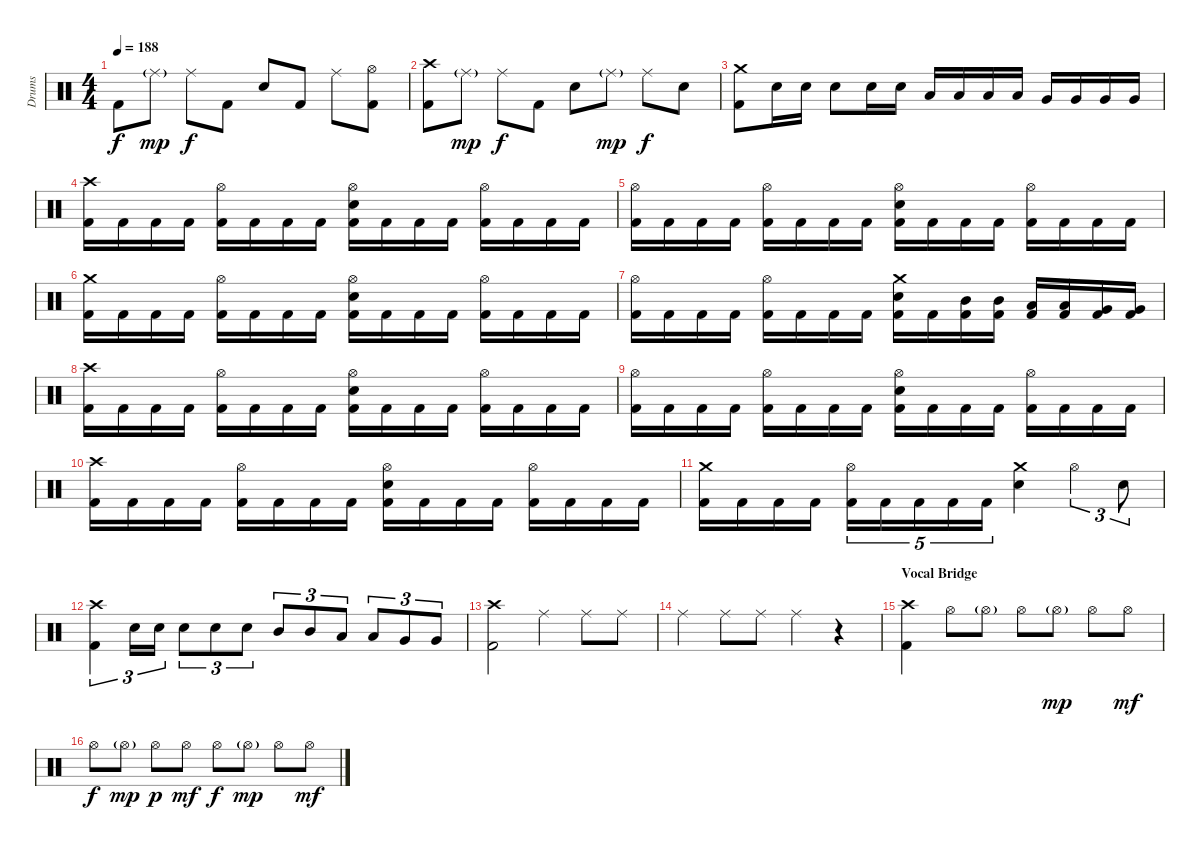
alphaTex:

\track ("Drums" "Drums") {instrument percussion}
\staff {score}
\articulation defaults
\ts (4 4)
\tempo 188
\clef neutral
\ks c "Kick (hit) 2".8{dy f} "Ride (middle)"{g}.8{dy mp} "Ride (middle)".8{dy f} "Kick (hit) 2".8 "Electric Snare (hit)".8 "Kick (hit) 2".8 "Ride (middle)".8
("Hi-Hat (open)" "Kick (hit) 2").8 |
("Crash high (hit)" "Kick (hit) 2").8 "Ride (middle)"{g}.8{dy mp} "Ride (middle)".8{dy f} "Kick (hit) 2".8 "Electric Snare (hit)".8 "Ride (middle)"{g}.8{dy mp} "Ride (middle)".8{dy f} "Electric Snare (hit)".8 |
("Crash medium (hit)" "Kick (hit) 2").8 "Electric Snare (hit)".16 "Electric Snare (hit)".16 "Electric Snare (hit)".8 "Electric Snare (hit)".16 "Electric Snare (hit)".16 "Low Tom (hit)".16 "Low Tom (hit)".16 "Low Tom (hit)".16 "Low Tom (hit)".16 "Very Low Tom (hit)".16 "Very Low Tom (hit)".16 "Very Low Tom (hit)".16 "Very Low Tom (hit)".16 |
("Crash high (hit)" "Kick (hit) 2").16 "Kick (hit) 2".16 "Kick (hit) 2".16 "Kick (hit) 2".16 ("Hi-Hat (open)" "Kick (hit) 2").16 "Kick (hit) 2".16 "Kick (hit) 2".16 "Kick (hit) 2".16 ("Hi-Hat (open)" "Electric Snare (hit)" "Kick (hit) 2").16 "Kick (hit) 2".16 "Kick (hit) 2".16 "Kick (hit) 2".16 ("Hi-Hat (open)" "Kick (hit) 2").16 "Kick (hit) 2".16 "Kick (hit) 2".16 "Kick (hit) 2".16 |
("Hi-Hat (open)" "Kick (hit) 2").16 "Kick (hit) 2".16 "Kick (hit) 2".16 "Kick (hit) 2".16 ("Hi-Hat (open)" "Kick (hit) 2").16 "Kick (hit) 2".16 "Kick (hit) 2".16 "Kick (hit) 2".16 ("Hi-Hat (open)" "Electric Snare (hit)" "Kick (hit) 2").16 "Kick (hit) 2".16 "Kick (hit) 2".16 "Kick (hit) 2".16 ("Hi-Hat (open)" "Kick (hit) 2").16 "Kick (hit) 2".16 "Kick (hit) 2".16 "Kick (hit) 2".16 |
("Crash medium (hit)" "Kick (hit) 2").16 "Kick (hit) 2".16 "Kick (hit) 2".16 "Kick (hit) 2".16 ("Hi-Hat (open)" "Kick (hit) 2").16 "Kick (hit) 2".16 "Kick (hit) 2".16 "Kick (hit) 2".16 ("Hi-Hat (open)" "Electric Snare (hit)" "Kick (hit) 2").16 "Kick (hit) 2".16 "Kick (hit) 2".16 "Kick (hit) 2".16 ("Hi-Hat (open)" "Kick (hit) 2").16 "Kick (hit) 2".16 "Kick (hit) 2".16 "Kick (hit) 2".16 |
("Hi-Hat (open)" "Kick (hit) 2").16 "Kick (hit) 2".16 "Kick (hit) 2".16 "Kick (hit) 2".16 ("Hi-Hat (open)" "Kick (hit) 2").16 "Kick (hit) 2".16 "Kick (hit) 2".16 "Kick (hit) 2".16 ("Crash medium (hit)" "Electric Snare (hit)" "Kick (hit) 2").16 "Kick (hit) 2".16 ("Mid Tom (hit)" "Kick (hit) 2").16 ("Mid Tom (hit)" "Kick (hit) 2").16 ("Low Tom (hit)" "Kick (hit) 2").16 ("Low Tom (hit)" "Kick (hit) 2").16 ("Very Low Tom (hit)" "Kick (hit) 2").16 ("Very Low Tom (hit)" "Kick (hit) 2").16 |
("Crash high (hit)" "Kick (hit) 2").16 "Kick (hit) 2".16 "Kick (hit) 2".16 "Kick (hit) 2".16 ("Hi-Hat (open)" "Kick (hit) 2").16 "Kick (hit) 2".16 "Kick (hit) 2".16 "Kick (hit) 2".16 ("Hi-Hat (open)" "Electric Snare (hit)" "Kick (hit) 2").16 "Kick (hit) 2".16 "Kick (hit) 2".16 "Kick (hit) 2".16 ("Hi-Hat (open)" "Kick (hit) 2").16 "Kick (hit) 2".16 "Kick (hit) 2".16 "Kick (hit) 2".16 |
("Hi-Hat (open)" "Kick (hit) 2").16 "Kick (hit) 2".16 "Kick (hit) 2".16 "Kick (hit) 2".16 ("Hi-Hat (open)" "Kick (hit) 2").16 "Kick (hit) 2".16 "Kick (hit) 2".16 "Kick (hit) 2".16 ("Hi-Hat (open)" "Electric Snare (hit)" "Kick (hit) 2").16 "Kick (hit) 2".16 "Kick (hit) 2".16 "Kick (hit) 2".16 ("Hi-Hat (open)" "Kick (hit) 2").16 "Kick (hit) 2".16 "Kick (hit) 2".16 "Kick (hit) 2".16 |
("Crash high (hit)" "Kick (hit) 2").16 "Kick (hit) 2".16 "Kick (hit) 2".16 "Kick (hit) 2".16 ("Hi-Hat (open)" "Kick (hit) 2").16 "Kick (hit) 2".16 "Kick (hit) 2".16 "Kick (hit) 2".16 ("Hi-Hat (open)" "Electric Snare (hit)" "Kick (hit) 2").16 "Kick (hit) 2".16 "Kick (hit) 2".16 "Kick (hit) 2".16 ("Hi-Hat (open)" "Kick (hit) 2").16 "Kick (hit) 2".16 "Kick (hit) 2".16 "Kick (hit) 2".16 |
("Crash medium (hit)" "Kick (hit) 2").16 "Kick (hit) 2".16 "Kick (hit) 2".16 "Kick (hit) 2".16 ("Hi-Hat (open)" "Kick (hit) 2").16{tu (5 4)} "Kick (hit) 2".16{tu (5 4)} "Kick (hit) 2".16{tu (5 4)} "Kick (hit) 2".16{tu (5 4)} "Kick (hit) 2".16{tu (5 4)} ("Crash medium (hit)" "Electric Snare (hit)").4 "Hi-Hat (open)".4{tu (3 2)} "Electric Snare (hit)".8{tu (3 2)} |
("Crash high (hit)" "Kick (hit) 2").4{tu (3 2)} "Electric Snare (hit)".16{tu (3 2)} "Electric Snare (hit)".16{tu (3 2)} "Electric Snare (hit)".8{tu (3 2)} "Electric Snare (hit)".8{tu (3 2)} "Electric Snare (hit)".8{tu (3 2)} "Mid Tom (hit)".8{tu (3 2)} "Mid Tom (hit)".8{tu (3 2)} "Low Tom (hit)".8{tu (3 2)} "Low Tom (hit)".8{tu (3 2)} "Very Low Tom (hit)".8{tu (3 2)} "Very Low Tom (hit)".8{tu (3 2)} |
("Crash high (hit)" "Kick (hit) 2").2 "Ride (middle)".4 "Ride (middle)".8 "Ride (middle)".8 |
"Ride (middle)".4 "Ride (middle)".8 "Ride (middle)".8 "Ride (middle)".4 r.4 |
\section ("" "Vocal Bridge")
("Crash high (hit)" "Kick (hit) 2").4 "Hi-Hat (open)".8 "Hi-Hat (open)"{g}.8 "Hi-Hat (open)".8 "Hi-Hat (open)"{g}.8{dy mp} "Hi-Hat (open)".8 "Hi-Hat (open)".8{dy mf} |
"Hi-Hat (open)".8{dy f} "Hi-Hat (open)"{g}.8{dy mp} "Hi-Hat (open)".8{dy p} "Hi-Hat (open)".8{dy mf} "Hi-Hat (open)".8{dy f} "Hi-Hat (open)"{g}.8{dy mp} "Hi-Hat (open)".8 "Hi-Hat (open)".8{dy mf}
